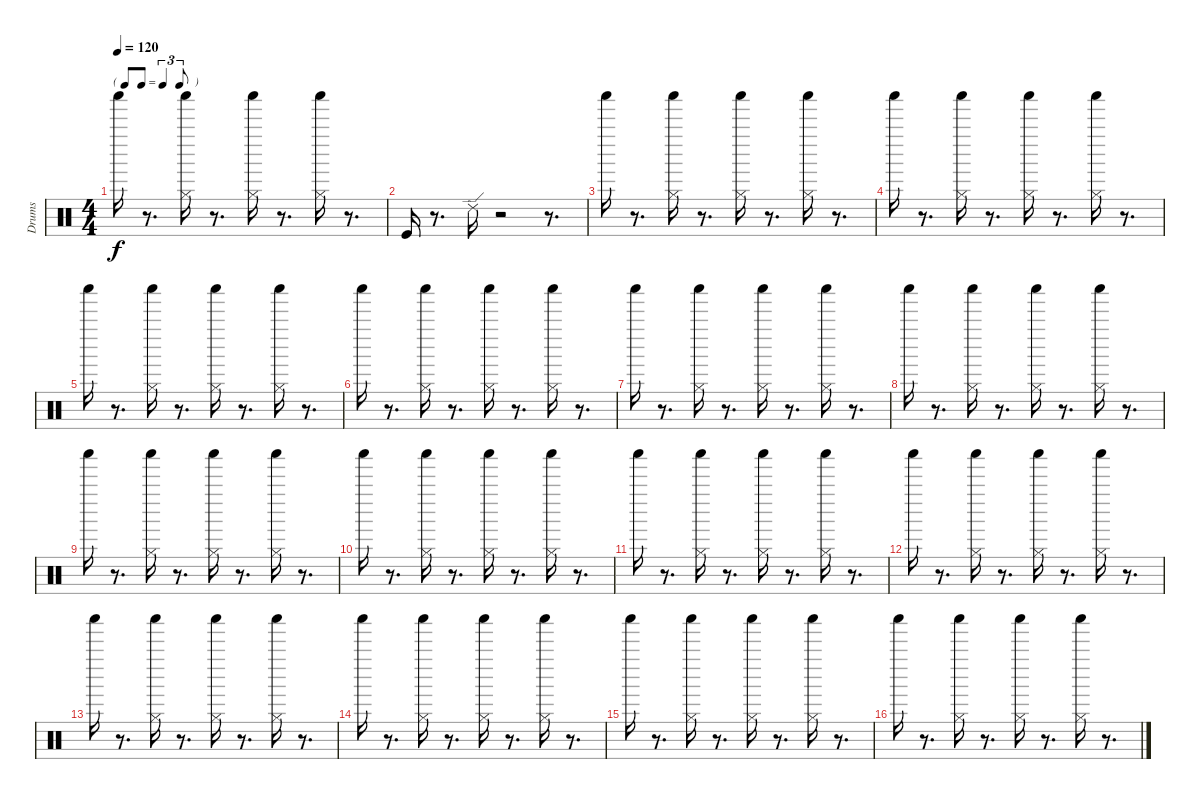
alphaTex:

\track ("Drums  " "Drums  ") {instrument percussion}
\staff {score}
\articulation defaults
\ts (4 4)
\tf triplet8th
\tempo 120
\clef neutral
\ks c "Shaker (hit)".16{dy f}
r.8{d} ("Shaker (hit)" "Hi-Hat (closed)").16 r.8{d} ("Shaker (hit)" "Hi-Hat (closed)").16 r.8{d} ("Shaker (hit)" "Hi-Hat (closed)").16 r.8{d} |
"Kick (hit)".16 r.8{d} "Ride (edge) 2".16 r.2 r.8{d} |
"Shaker (hit)".16 r.8{d} ("Shaker (hit)" "Hi-Hat (closed)").16 r.8{d} ("Shaker (hit)" "Hi-Hat (closed)").16 r.8{d} ("Shaker (hit)" "Hi-Hat (closed)").16 r.8{d} |
"Shaker (hit)".16 r.8{d} ("Shaker (hit)" "Hi-Hat (closed)").16 r.8{d} ("Shaker (hit)" "Hi-Hat (closed)").16 r.8{d} ("Shaker (hit)" "Hi-Hat (closed)").16 r.8{d} |
"Shaker (hit)".16 r.8{d} ("Shaker (hit)" "Hi-Hat (closed)").16 r.8{d} ("Shaker (hit)" "Hi-Hat (closed)").16 r.8{d} ("Shaker (hit)" "Hi-Hat (closed)").16 r.8{d} |
"Shaker (hit)".16 r.8{d} ("Shaker (hit)" "Hi-Hat (closed)").16 r.8{d} ("Shaker (hit)" "Hi-Hat (closed)").16 r.8{d} ("Shaker (hit)" "Hi-Hat (closed)").16 r.8{d} |
"Shaker (hit)".16 r.8{d} ("Shaker (hit)" "Hi-Hat (closed)").16 r.8{d} ("Shaker (hit)" "Hi-Hat (closed)").16 r.8{d} ("Shaker (hit)" "Hi-Hat (closed)").16 r.8{d} |
"Shaker (hit)".16 r.8{d} ("Shaker (hit)" "Hi-Hat (closed)").16 r.8{d} ("Shaker (hit)" "Hi-Hat (closed)").16 r.8{d} ("Shaker (hit)" "Hi-Hat (closed)").16 r.8{d} |
"Shaker (hit)".16 r.8{d} ("Shaker (hit)" "Hi-Hat (closed)").16 r.8{d} ("Shaker (hit)" "Hi-Hat (closed)").16 r.8{d} ("Shaker (hit)" "Hi-Hat (closed)").16 r.8{d} |
"Shaker (hit)".16 r.8{d} ("Shaker (hit)" "Hi-Hat (closed)").16 r.8{d} ("Shaker (hit)" "Hi-Hat (closed)").16 r.8{d} ("Shaker (hit)" "Hi-Hat (closed)").16 r.8{d} |
"Shaker (hit)".16 r.8{d} ("Shaker (hit)" "Hi-Hat (closed)").16 r.8{d} ("Shaker (hit)" "Hi-Hat (closed)").16 r.8{d} ("Shaker (hit)" "Hi-Hat (closed)").16 r.8{d} |
"Shaker (hit)".16 r.8{d} ("Shaker (hit)" "Hi-Hat (closed)").16 r.8{d} ("Shaker (hit)" "Hi-Hat (closed)").16 r.8{d} ("Shaker (hit)" "Hi-Hat (closed)").16 r.8{d} |
"Shaker (hit)".16 r.8{d} ("Shaker (hit)" "Hi-Hat (closed)").16 r.8{d} ("Shaker (hit)" "Hi-Hat (closed)").16 r.8{d} ("Shaker (hit)" "Hi-Hat (closed)").16 r.8{d} |
"Shaker (hit)".16 r.8{d} ("Shaker (hit)" "Hi-Hat (closed)").16 r.8{d} ("Shaker (hit)" "Hi-Hat (closed)").16 r.8{d} ("Shaker (hit)" "Hi-Hat (closed)").16 r.8{d} |
"Shaker (hit)".16 r.8{d} ("Shaker (hit)" "Hi-Hat (closed)").16 r.8{d} ("Shaker (hit)" "Hi-Hat (closed)").16 r.8{d} ("Shaker (hit)" "Hi-Hat (closed)").16 r.8{d} |
"Shaker (hit)".16 r.8{d} ("Shaker (hit)" "Hi-Hat (closed)").16 r.8{d} ("Shaker (hit)" "Hi-Hat (closed)").16 r.8{d} ("Shaker (hit)" "Hi-Hat (closed)").16 r.8{d}
